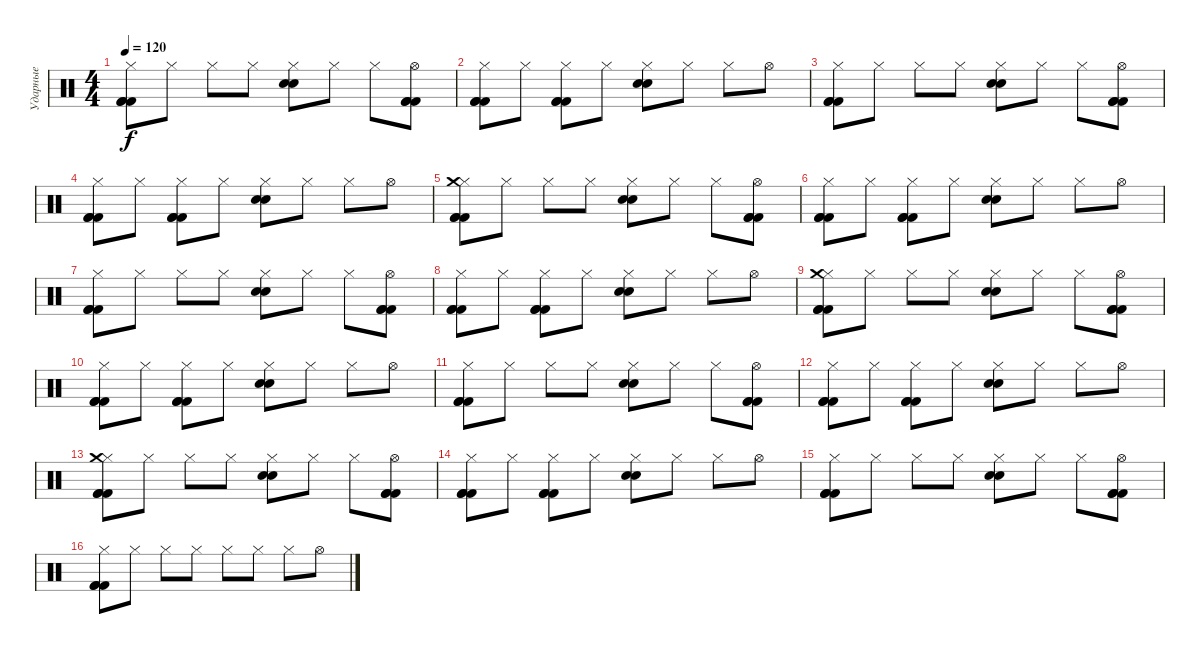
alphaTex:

\track ("Ударные" "Ударные") {instrument percussion}
\staff {score}
\articulation defaults
\ts (4 4)
\tempo 120
\clef neutral
\ks c
("Hi-Hat (closed)" "Kick (hit) 2" "Kick (hit) 2" "Kick (hit) 2").8{dy f} "Hi-Hat (closed)".8 "Hi-Hat (closed)".8 "Hi-Hat (closed)".8 ("Hi-Hat (closed)" "Snare (hit) 2" "Snare (hit) 2").8 "Hi-Hat (closed)".8 "Hi-Hat (closed)".8 ("Hi-Hat (open)" "Kick (hit) 2" "Kick (hit) 2" "Kick (hit) 2").8 |
("Hi-Hat (closed)" "Kick (hit) 2" "Kick (hit) 2" "Kick (hit) 2").8 "Hi-Hat (closed)".8 ("Hi-Hat (closed)" "Kick (hit) 2" "Kick (hit) 2" "Kick (hit) 2").8 "Hi-Hat (closed)".8 ("Hi-Hat (closed)" "Snare (hit) 2" "Snare (hit) 2").8 "Hi-Hat (closed)".8 "Hi-Hat (closed)".8 "Hi-Hat (open)".8 |
("Hi-Hat (closed)" "Kick (hit) 2" "Kick (hit) 2" "Kick (hit) 2").8 "Hi-Hat (closed)".8 "Hi-Hat (closed)".8 "Hi-Hat (closed)".8 ("Hi-Hat (closed)" "Snare (hit) 2" "Snare (hit) 2").8 "Hi-Hat (closed)".8 "Hi-Hat (closed)".8 ("Hi-Hat (open)" "Kick (hit) 2" "Kick (hit) 2" "Kick (hit) 2").8 |
("Hi-Hat (closed)" "Kick (hit) 2" "Kick (hit) 2" "Kick (hit) 2").8 "Hi-Hat (closed)".8 ("Hi-Hat (closed)" "Kick (hit) 2" "Kick (hit) 2" "Kick (hit) 2").8 "Hi-Hat (closed)".8 ("Hi-Hat (closed)" "Snare (hit) 2" "Snare (hit) 2").8 "Hi-Hat (closed)".8 "Hi-Hat (closed)".8 "Hi-Hat (open)".8 |
("Hi-Hat (closed)" "Kick (hit) 2" "Kick (hit) 2" "Kick (hit) 2" "Crash medium (hit)").8 "Hi-Hat (closed)".8 "Hi-Hat (closed)".8 "Hi-Hat (closed)".8 ("Hi-Hat (closed)" "Snare (hit) 2" "Snare (hit) 2").8 "Hi-Hat (closed)".8 "Hi-Hat (closed)".8 ("Hi-Hat (open)" "Kick (hit) 2" "Kick (hit) 2" "Kick (hit) 2").8 |
("Hi-Hat (closed)" "Kick (hit) 2" "Kick (hit) 2" "Kick (hit) 2").8 "Hi-Hat (closed)".8 ("Hi-Hat (closed)" "Kick (hit) 2" "Kick (hit) 2" "Kick (hit) 2").8 "Hi-Hat (closed)".8 ("Hi-Hat (closed)" "Snare (hit) 2" "Snare (hit) 2").8 "Hi-Hat (closed)".8 "Hi-Hat (closed)".8 "Hi-Hat (open)".8 |
("Hi-Hat (closed)" "Kick (hit) 2" "Kick (hit) 2" "Kick (hit) 2").8 "Hi-Hat (closed)".8 "Hi-Hat (closed)".8 "Hi-Hat (closed)".8 ("Hi-Hat (closed)" "Snare (hit) 2" "Snare (hit) 2").8 "Hi-Hat (closed)".8 "Hi-Hat (closed)".8 ("Hi-Hat (open)" "Kick (hit) 2" "Kick (hit) 2" "Kick (hit) 2").8 |
("Hi-Hat (closed)" "Kick (hit) 2" "Kick (hit) 2" "Kick (hit) 2").8 "Hi-Hat (closed)".8 ("Hi-Hat (closed)" "Kick (hit) 2" "Kick (hit) 2" "Kick (hit) 2").8 "Hi-Hat (closed)".8 ("Hi-Hat (closed)" "Snare (hit) 2" "Snare (hit) 2").8 "Hi-Hat (closed)".8 "Hi-Hat (closed)".8 "Hi-Hat (open)".8 |
("Hi-Hat (closed)" "Kick (hit) 2" "Kick (hit) 2" "Kick (hit) 2" "Crash medium (hit)").8 "Hi-Hat (closed)".8 "Hi-Hat (closed)".8 "Hi-Hat (closed)".8 ("Hi-Hat (closed)" "Snare (hit) 2" "Snare (hit) 2").8 "Hi-Hat (closed)".8 "Hi-Hat (closed)".8 ("Hi-Hat (open)" "Kick (hit) 2" "Kick (hit) 2" "Kick (hit) 2").8 |
("Hi-Hat (closed)" "Kick (hit) 2" "Kick (hit) 2" "Kick (hit) 2").8 "Hi-Hat (closed)".8 ("Hi-Hat (closed)" "Kick (hit) 2" "Kick (hit) 2" "Kick (hit) 2").8 "Hi-Hat (closed)".8 ("Hi-Hat (closed)" "Snare (hit) 2" "Snare (hit) 2").8 "Hi-Hat (closed)".8 "Hi-Hat (closed)".8 "Hi-Hat (open)".8 |
("Hi-Hat (closed)" "Kick (hit) 2" "Kick (hit) 2" "Kick (hit) 2").8 "Hi-Hat (closed)".8 "Hi-Hat (closed)".8 "Hi-Hat (closed)".8 ("Hi-Hat (closed)" "Snare (hit) 2" "Snare (hit) 2").8 "Hi-Hat (closed)".8 "Hi-Hat (closed)".8 ("Hi-Hat (open)" "Kick (hit) 2" "Kick (hit) 2" "Kick (hit) 2").8 |
("Hi-Hat (closed)" "Kick (hit) 2" "Kick (hit) 2" "Kick (hit) 2").8 "Hi-Hat (closed)".8 ("Hi-Hat (closed)" "Kick (hit) 2" "Kick (hit) 2" "Kick (hit) 2").8 "Hi-Hat (closed)".8 ("Hi-Hat (closed)" "Snare (hit) 2" "Snare (hit) 2").8 "Hi-Hat (closed)".8 "Hi-Hat (closed)".8 "Hi-Hat (open)".8 |
("Hi-Hat (closed)" "Kick (hit) 2" "Kick (hit) 2" "Kick (hit) 2" "Crash medium (hit)").8 "Hi-Hat (closed)".8 "Hi-Hat (closed)".8 "Hi-Hat (closed)".8 ("Hi-Hat (closed)" "Snare (hit) 2" "Snare (hit) 2").8 "Hi-Hat (closed)".8 "Hi-Hat (closed)".8 ("Hi-Hat (open)" "Kick (hit) 2" "Kick (hit) 2" "Kick (hit) 2").8 |
("Hi-Hat (closed)" "Kick (hit) 2" "Kick (hit) 2" "Kick (hit) 2").8 "Hi-Hat (closed)".8 ("Hi-Hat (closed)" "Kick (hit) 2" "Kick (hit) 2" "Kick (hit) 2").8 "Hi-Hat (closed)".8 ("Hi-Hat (closed)" "Snare (hit) 2" "Snare (hit) 2").8 "Hi-Hat (closed)".8 "Hi-Hat (closed)".8 "Hi-Hat (open)".8 |
("Hi-Hat (closed)" "Kick (hit) 2" "Kick (hit) 2" "Kick (hit) 2").8 "Hi-Hat (closed)".8 "Hi-Hat (closed)".8 "Hi-Hat (closed)".8 ("Hi-Hat (closed)" "Snare (hit) 2" "Snare (hit) 2").8 "Hi-Hat (closed)".8 "Hi-Hat (closed)".8 ("Hi-Hat (open)" "Kick (hit) 2" "Kick (hit) 2" "Kick (hit) 2").8 |
("Hi-Hat (closed)" "Kick (hit) 2" "Kick (hit) 2" "Kick (hit) 2").8 "Hi-Hat (closed)".8 "Hi-Hat (closed)".8 "Hi-Hat (closed)".8 "Hi-Hat (closed)".8 "Hi-Hat (closed)".8 "Hi-Hat (closed)".8 "Hi-Hat (open)".8
